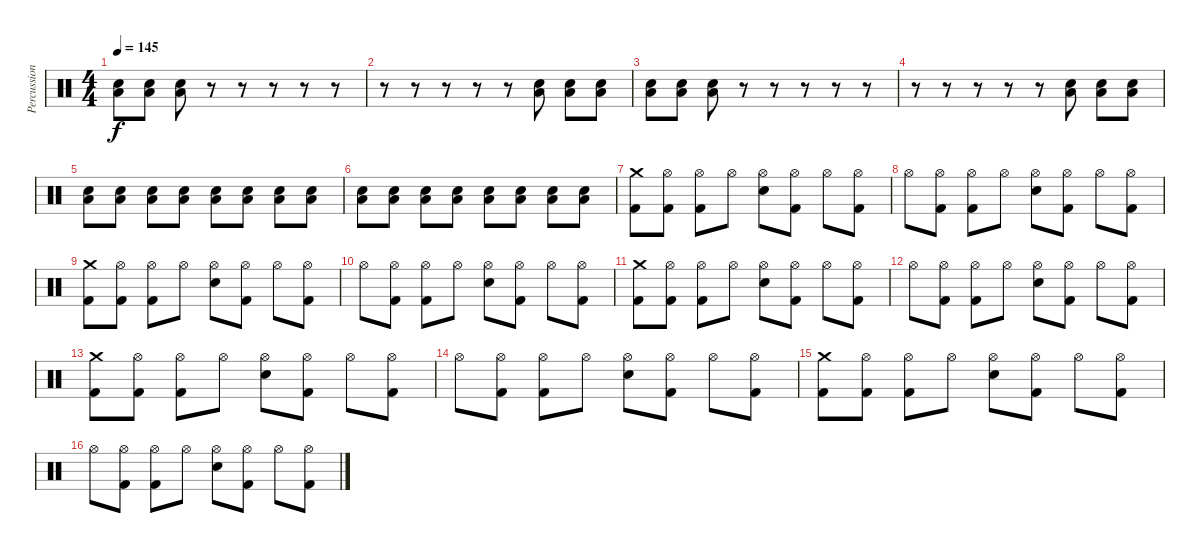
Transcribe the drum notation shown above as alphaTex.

\track ("Percussion" "Percussion") {instrument percussion}
\staff {score}
\articulation defaults
\ts (4 4)
\tempo 145
\clef neutral
\ks c
("Low Tom (hit)" "Electric Snare (hit)").8{dy f} ("Low Tom (hit)" "Electric Snare (hit)").8 ("Low Tom (hit)" "Electric Snare (hit)").8 r.8 r.8 r.8 r.8 r.8 |
r.8 r.8 r.8 r.8 r.8 ("Low Tom (hit)" "Electric Snare (hit)").8 ("Low Tom (hit)" "Electric Snare (hit)").8 ("Low Tom (hit)" "Electric Snare (hit)").8 |
("Low Tom (hit)" "Electric Snare (hit)").8 ("Low Tom (hit)" "Electric Snare (hit)").8 ("Low Tom (hit)" "Electric Snare (hit)").8 r.8 r.8 r.8 r.8 r.8 |
r.8 r.8 r.8 r.8 r.8 ("Low Tom (hit)" "Electric Snare (hit)").8 ("Low Tom (hit)" "Electric Snare (hit)").8 ("Low Tom (hit)" "Electric Snare (hit)").8 |
("Low Tom (hit)" "Electric Snare (hit)").8 ("Low Tom (hit)" "Electric Snare (hit)").8 ("Low Tom (hit)" "Electric Snare (hit)").8 ("Low Tom (hit)" "Electric Snare (hit)").8 ("Low Tom (hit)" "Electric Snare (hit)").8 ("Low Tom (hit)" "Electric Snare (hit)").8 ("Low Tom (hit)" "Electric Snare (hit)").8 ("Low Tom (hit)" "Electric Snare (hit)").8 |
("Low Tom (hit)" "Electric Snare (hit)").8 ("Low Tom (hit)" "Electric Snare (hit)").8 ("Low Tom (hit)" "Electric Snare (hit)").8 ("Low Tom (hit)" "Electric Snare (hit)").8 ("Low Tom (hit)" "Electric Snare (hit)").8 ("Low Tom (hit)" "Electric Snare (hit)").8 ("Low Tom (hit)" "Electric Snare (hit)").8 ("Low Tom (hit)" "Electric Snare (hit)").8 |
("Crash medium (hit)" "Kick (hit) 2").8 ("Hi-Hat (open)" "Kick (hit) 2").8 ("Hi-Hat (open)" "Kick (hit) 2").8 "Hi-Hat (open)".8 ("Hi-Hat (open)" "Electric Snare (hit)").8 ("Hi-Hat (open)" "Kick (hit) 2").8 "Hi-Hat (open)".8 ("Hi-Hat (open)" "Kick (hit) 2").8 |
"Hi-Hat (open)".8 ("Hi-Hat (open)" "Kick (hit) 2").8 ("Hi-Hat (open)" "Kick (hit) 2").8 "Hi-Hat (open)".8 ("Hi-Hat (open)" "Electric Snare (hit)").8 ("Hi-Hat (open)" "Kick (hit) 2").8 "Hi-Hat (open)".8 ("Hi-Hat (open)" "Kick (hit) 2").8 |
("Crash medium (hit)" "Kick (hit) 2").8 ("Hi-Hat (open)" "Kick (hit) 2").8 ("Hi-Hat (open)" "Kick (hit) 2").8 "Hi-Hat (open)".8 ("Hi-Hat (open)" "Electric Snare (hit)").8 ("Hi-Hat (open)" "Kick (hit) 2").8 "Hi-Hat (open)".8 ("Hi-Hat (open)" "Kick (hit) 2").8 |
"Hi-Hat (open)".8 ("Hi-Hat (open)" "Kick (hit) 2").8 ("Hi-Hat (open)" "Kick (hit) 2").8 "Hi-Hat (open)".8 ("Hi-Hat (open)" "Electric Snare (hit)").8 ("Hi-Hat (open)" "Kick (hit) 2").8 "Hi-Hat (open)".8 ("Hi-Hat (open)" "Kick (hit) 2").8 |
("Crash medium (hit)" "Kick (hit) 2").8 ("Hi-Hat (open)" "Kick (hit) 2").8 ("Hi-Hat (open)" "Kick (hit) 2").8 "Hi-Hat (open)".8 ("Hi-Hat (open)" "Electric Snare (hit)").8 ("Hi-Hat (open)" "Kick (hit) 2").8 "Hi-Hat (open)".8 ("Hi-Hat (open)" "Kick (hit) 2").8 |
"Hi-Hat (open)".8 ("Hi-Hat (open)" "Kick (hit) 2").8 ("Hi-Hat (open)" "Kick (hit) 2").8 "Hi-Hat (open)".8 ("Hi-Hat (open)" "Electric Snare (hit)").8 ("Hi-Hat (open)" "Kick (hit) 2").8 "Hi-Hat (open)".8 ("Hi-Hat (open)" "Kick (hit) 2").8 |
("Crash medium (hit)" "Kick (hit) 2").8 ("Hi-Hat (open)" "Kick (hit) 2").8 ("Hi-Hat (open)" "Kick (hit) 2").8 "Hi-Hat (open)".8 ("Hi-Hat (open)" "Electric Snare (hit)").8 ("Hi-Hat (open)" "Kick (hit) 2").8 "Hi-Hat (open)".8 ("Hi-Hat (open)" "Kick (hit) 2").8 |
"Hi-Hat (open)".8 ("Hi-Hat (open)" "Kick (hit) 2").8 ("Hi-Hat (open)" "Kick (hit) 2").8 "Hi-Hat (open)".8 ("Hi-Hat (open)" "Electric Snare (hit)").8 ("Hi-Hat (open)" "Kick (hit) 2").8 "Hi-Hat (open)".8 ("Hi-Hat (open)" "Kick (hit) 2").8 |
("Crash medium (hit)" "Kick (hit) 2").8 ("Hi-Hat (open)" "Kick (hit) 2").8 ("Hi-Hat (open)" "Kick (hit) 2").8 "Hi-Hat (open)".8 ("Hi-Hat (open)" "Electric Snare (hit)").8 ("Hi-Hat (open)" "Kick (hit) 2").8 "Hi-Hat (open)".8 ("Hi-Hat (open)" "Kick (hit) 2").8 |
"Hi-Hat (open)".8 ("Hi-Hat (open)" "Kick (hit) 2").8 ("Hi-Hat (open)" "Kick (hit) 2").8 "Hi-Hat (open)".8 ("Hi-Hat (open)" "Electric Snare (hit)").8 ("Hi-Hat (open)" "Kick (hit) 2").8 "Hi-Hat (open)".8 ("Hi-Hat (open)" "Kick (hit) 2").8
